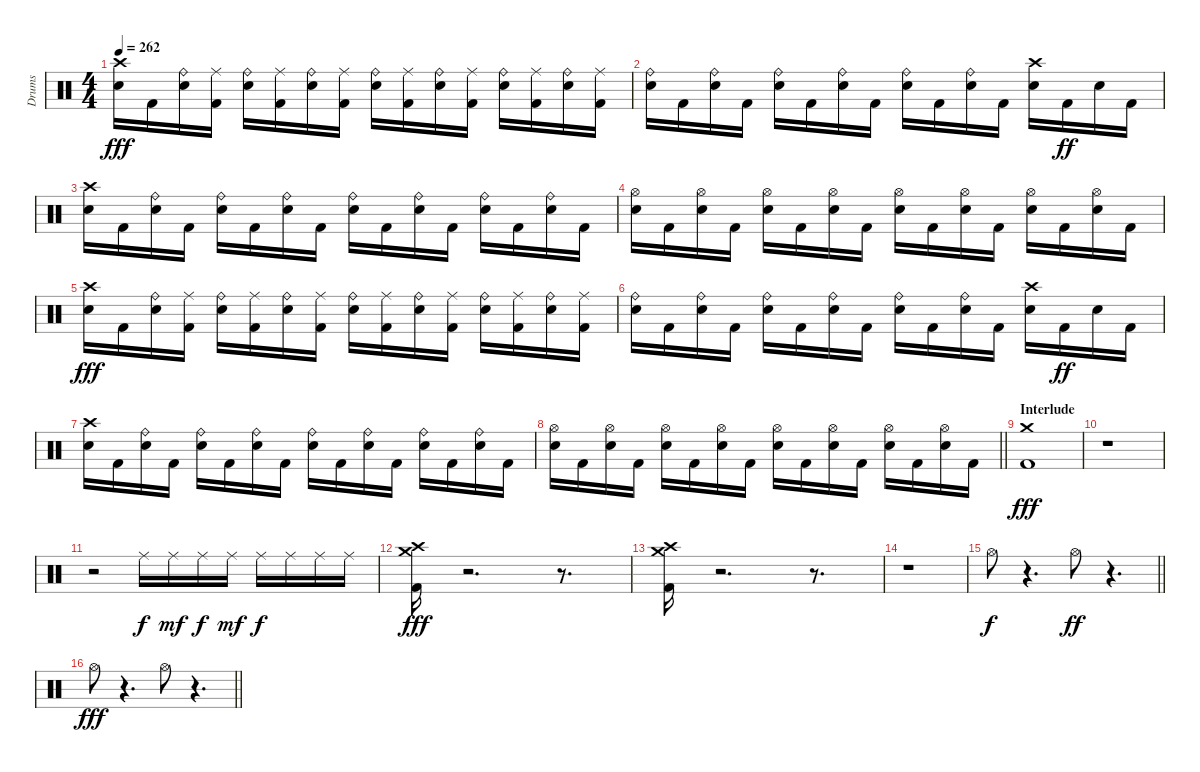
\track ("Drums" "Drums") {instrument percussion}
\staff {score}
\articulation defaults
\ts (4 4)
\tempo 262
\clef neutral
\ks c
("Crash high (hit)" "Snare (hit) 2").16{dy fff} "Kick (hit) 2".16 ("Snare (hit) 2" "Ride (bell)").16 ("Kick (hit) 2" "Ride (middle)").16 ("Snare (hit) 2" "Ride (bell)").16 ("Kick (hit) 2" "Ride (middle)").16 ("Snare (hit) 2" "Ride (bell)").16 ("Kick (hit) 2" "Ride (middle)").16 ("Snare (hit) 2" "Ride (bell)").16 ("Kick (hit) 2" "Ride (middle)").16 ("Snare (hit) 2" "Ride (bell)").16 ("Kick (hit) 2" "Ride (middle)").16 ("Snare (hit) 2" "Ride (bell)").16 ("Kick (hit) 2" "Ride (middle)").16 ("Snare (hit) 2" "Ride (bell)").16 ("Kick (hit) 2" "Ride (middle)").16 |
("Snare (hit) 2" "Ride (bell)").16 "Kick (hit) 2".16 ("Snare (hit) 2" "Ride (bell)").16 "Kick (hit) 2".16 ("Snare (hit) 2" "Ride (bell)").16 "Kick (hit) 2".16 ("Snare (hit) 2" "Ride (bell)").16 "Kick (hit) 2".16 ("Snare (hit) 2" "Ride (bell)").16 "Kick (hit) 2".16 ("Snare (hit) 2" "Ride (bell)").16 "Kick (hit) 2".16 ("Crash high (hit)" "Snare (hit) 2").16 "Kick (hit) 2".16{dy ff} "Snare (hit) 2".16 "Kick (hit) 2".16 |
("Crash high (hit)" "Snare (hit) 2").16 "Kick (hit) 2".16 ("Snare (hit) 2" "Ride (bell)").16 "Kick (hit) 2".16 ("Snare (hit) 2" "Ride (bell)").16 "Kick (hit) 2".16 ("Snare (hit) 2" "Ride (bell)").16 "Kick (hit) 2".16 ("Snare (hit) 2" "Ride (bell)").16 "Kick (hit) 2".16 ("Snare (hit) 2" "Ride (bell)").16 "Kick (hit) 2".16 ("Snare (hit) 2" "Ride (bell)").16 "Kick (hit) 2".16 ("Snare (hit) 2" "Ride (bell)").16 "Kick (hit) 2".16 |
("Hi-Hat (open)" "Snare (hit) 2").16 "Kick (hit) 2".16 ("Hi-Hat (open)" "Snare (hit) 2").16 "Kick (hit) 2".16 ("Hi-Hat (open)" "Snare (hit) 2").16 "Kick (hit) 2".16 ("Hi-Hat (open)" "Snare (hit) 2").16 "Kick (hit) 2".16 ("Hi-Hat (open)" "Snare (hit) 2").16 "Kick (hit) 2".16 ("Hi-Hat (open)" "Snare (hit) 2").16 "Kick (hit) 2".16 ("Hi-Hat (open)" "Snare (hit) 2").16 "Kick (hit) 2".16 ("Hi-Hat (open)" "Snare (hit) 2").16 "Kick (hit) 2".16 |
("Crash high (hit)" "Snare (hit) 2").16{dy fff} "Kick (hit) 2".16 ("Snare (hit) 2" "Ride (bell)").16 ("Kick (hit) 2" "Ride (middle)").16 ("Snare (hit) 2" "Ride (bell)").16 ("Kick (hit) 2" "Ride (middle)").16 ("Snare (hit) 2" "Ride (bell)").16 ("Kick (hit) 2" "Ride (middle)").16 ("Snare (hit) 2" "Ride (bell)").16 ("Kick (hit) 2" "Ride (middle)").16 ("Snare (hit) 2" "Ride (bell)").16 ("Kick (hit) 2" "Ride (middle)").16 ("Snare (hit) 2" "Ride (bell)").16 ("Kick (hit) 2" "Ride (middle)").16 ("Snare (hit) 2" "Ride (bell)").16 ("Kick (hit) 2" "Ride (middle)").16 |
("Snare (hit) 2" "Ride (bell)").16 "Kick (hit) 2".16 ("Snare (hit) 2" "Ride (bell)").16 "Kick (hit) 2".16 ("Snare (hit) 2" "Ride (bell)").16 "Kick (hit) 2".16 ("Snare (hit) 2" "Ride (bell)").16 "Kick (hit) 2".16 ("Snare (hit) 2" "Ride (bell)").16 "Kick (hit) 2".16 ("Snare (hit) 2" "Ride (bell)").16 "Kick (hit) 2".16 ("Crash high (hit)" "Snare (hit) 2").16 "Kick (hit) 2".16{dy ff} "Snare (hit) 2".16 "Kick (hit) 2".16 |
("Crash high (hit)" "Snare (hit) 2").16 "Kick (hit) 2".16 ("Snare (hit) 2" "Ride (bell)").16 "Kick (hit) 2".16 ("Snare (hit) 2" "Ride (bell)").16 "Kick (hit) 2".16 ("Snare (hit) 2" "Ride (bell)").16 "Kick (hit) 2".16 ("Snare (hit) 2" "Ride (bell)").16 "Kick (hit) 2".16 ("Snare (hit) 2" "Ride (bell)").16 "Kick (hit) 2".16 ("Snare (hit) 2" "Ride (bell)").16 "Kick (hit) 2".16 ("Snare (hit) 2" "Ride (bell)").16 "Kick (hit) 2".16 |
\barLineRight lightlight
("Hi-Hat (open)" "Snare (hit) 2").16 "Kick (hit) 2".16 ("Hi-Hat (open)" "Snare (hit) 2").16 "Kick (hit) 2".16 ("Hi-Hat (open)" "Snare (hit) 2").16 "Kick (hit) 2".16 ("Hi-Hat (open)" "Snare (hit) 2").16 "Kick (hit) 2".16 ("Hi-Hat (open)" "Snare (hit) 2").16 "Kick (hit) 2".16 ("Hi-Hat (open)" "Snare (hit) 2").16 "Kick (hit) 2".16 ("Hi-Hat (open)" "Snare (hit) 2").16 "Kick (hit) 2".16 ("Hi-Hat (open)" "Snare (hit) 2").16 "Kick (hit) 2".16 |
\section ("" "Interlude")
("Crash medium (hit)" "Kick (hit) 2").1{dy fff} |
r.1 |
r.2 "Ride (middle)".16{dy f} "Ride (middle)".16{dy mf} "Ride (middle)".16{dy f} "Ride (middle)".16{dy mf} "Ride (middle)".16{dy f} "Ride (middle)".16 "Ride (middle)".16 "Ride (middle)".16 |
("Crash high (hit)" "Crash medium (hit)" "Kick (hit) 2").16{dy fff} r.2{d} r.8{d} |
("Crash high (hit)" "Crash medium (hit)" "Kick (hit) 2").16 r.2{d} r.8{d} |
r.1 |
\barLineRight lightlight "Hi-Hat (open)".8{dy f}
r.4{d} "Hi-Hat (open)".8{dy ff} r.4{d} |
\barLineRight lightlight "Hi-Hat (open)".8{dy fff}
r.4{d} "Hi-Hat (open)".8 r.4{d}
